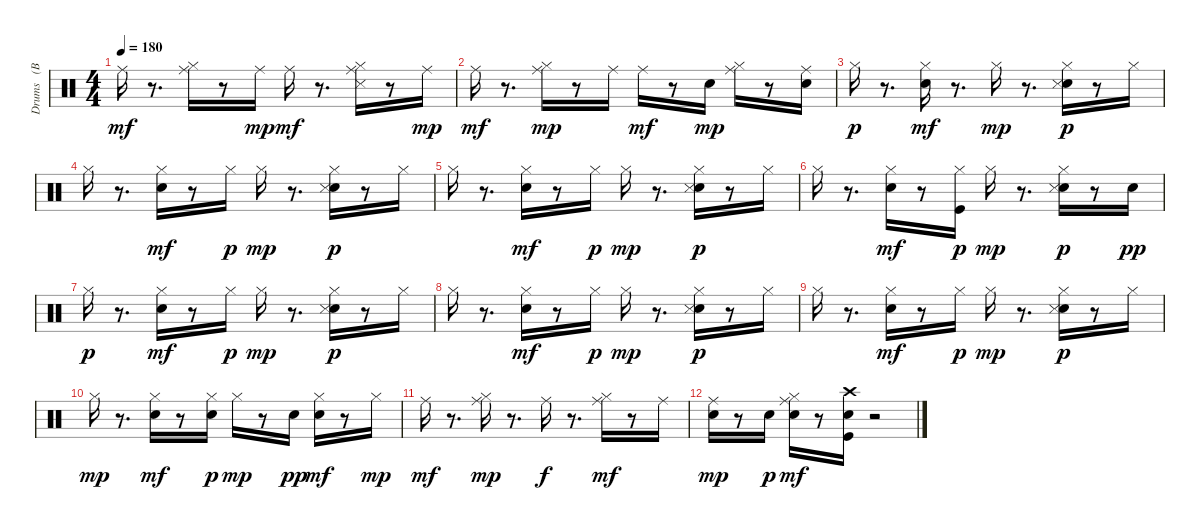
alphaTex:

\track ("Drums   (BB)" "Drums   (B") {instrument percussion}
\staff {score}
\articulation defaults
\ts (4 4)
\tempo 180
\clef neutral
\ks c "Ride (middle)".16{dy mf}
r.8{d} ("Hi-Hat (closed)" "Ride (middle)").16 r.8 "Ride (middle)".16{dy mp} "Ride (middle)".16{dy mf} r.8{d} ("Hi-Hat (closed)" "Snare (side stick) 3" "Ride (middle)").16 r.8 "Ride (middle)".16{dy mp} |
"Ride (middle)".16{dy mf} r.8{d} ("Hi-Hat (closed)" "Ride (middle)").16{dy mp} r.8 "Ride (middle)".16 "Ride (middle)".16{dy mf} r.8 "Snare (hit) 2".16{dy mp} ("Hi-Hat (closed)" "Ride (middle)").16 r.8 ("Snare (hit) 2" "Ride (middle)").16 |
"Hi-Hat (closed)".16{dy p} r.8{d} ("Snare (hit) 2" "Hi-Hat (closed)").16{dy mf} r.8{d} "Hi-Hat (closed)".16{dy mp} r.8{d} ("Snare (hit) 2" "Hi-Hat (closed)" "Snare (side stick) 3").16{dy p} r.8 "Hi-Hat (closed)".16 |
"Hi-Hat (closed)".16 r.8{d} ("Snare (hit) 2" "Hi-Hat (closed)").16{dy mf} r.8 "Hi-Hat (closed)".16{dy p} "Hi-Hat (closed)".16{dy mp} r.8{d} ("Snare (hit) 2" "Hi-Hat (closed)" "Snare (side stick) 3").16{dy p} r.8 "Hi-Hat (closed)".16 |
"Hi-Hat (closed)".16 r.8{d} ("Snare (hit) 2" "Hi-Hat (closed)").16{dy mf} r.8 "Hi-Hat (closed)".16{dy p} "Hi-Hat (closed)".16{dy mp} r.8{d} ("Snare (hit) 2" "Hi-Hat (closed)" "Snare (side stick) 3").16{dy p} r.8 "Hi-Hat (closed)".16 |
"Hi-Hat (closed)".16 r.8{d} ("Snare (hit) 2" "Hi-Hat (closed)").16{dy mf} r.8 ("Kick (hit)" "Hi-Hat (closed)").16{dy p} "Hi-Hat (closed)".16{dy mp} r.8{d} ("Snare (hit) 2" "Hi-Hat (closed)" "Snare (side stick) 3").16{dy p} r.8 "Snare (hit) 2".16{dy pp} |
"Hi-Hat (closed)".16{dy p} r.8{d} ("Snare (hit) 2" "Hi-Hat (closed)").16{dy mf} r.8 "Hi-Hat (closed)".16{dy p} "Hi-Hat (closed)".16{dy mp} r.8{d} ("Snare (hit) 2" "Hi-Hat (closed)" "Snare (side stick) 3").16{dy p} r.8 "Hi-Hat (closed)".16 |
"Hi-Hat (closed)".16 r.8{d} ("Snare (hit) 2" "Hi-Hat (closed)").16{dy mf} r.8 "Hi-Hat (closed)".16{dy p} "Hi-Hat (closed)".16{dy mp} r.8{d} ("Snare (hit) 2" "Hi-Hat (closed)" "Snare (side stick) 3").16{dy p} r.8 "Hi-Hat (closed)".16 |
"Hi-Hat (closed)".16 r.8{d} ("Snare (hit) 2" "Hi-Hat (closed)").16{dy mf} r.8 "Hi-Hat (closed)".16{dy p} "Hi-Hat (closed)".16{dy mp} r.8{d} ("Snare (hit) 2" "Hi-Hat (closed)" "Snare (side stick) 3").16{dy p} r.8 "Hi-Hat (closed)".16 |
"Hi-Hat (closed)".16{dy mp} r.8{d} ("Snare (hit) 2" "Hi-Hat (closed)").16{dy mf} r.8 ("Snare (hit) 2" "Hi-Hat (closed)").16{dy p} "Hi-Hat (closed)".16{dy mp} r.8 "Snare (hit) 2".16{dy pp} ("Snare (hit) 2" "Hi-Hat (closed)").16{dy mf} r.8 "Hi-Hat (closed)".16{dy mp} |
"Ride (middle)".16{dy mf} r.8{d} ("Hi-Hat (closed)" "Ride (middle)").16{dy mp} r.8{d} "Ride (middle)".16{dy f} r.8{d} ("Hi-Hat (closed)" "Ride (middle)").16{dy mf} r.8 "Ride (middle)".16 |
("Snare (hit) 2" "Ride (middle)").16{dy mp} r.8 "Snare (hit) 2".16{dy p} ("Snare (hit) 2" "Hi-Hat (closed)" "Ride (middle)").16{dy mf} r.8 ("Kick (hit)" "Snare (hit) 2" "Crash high (hit)").16 r.2
